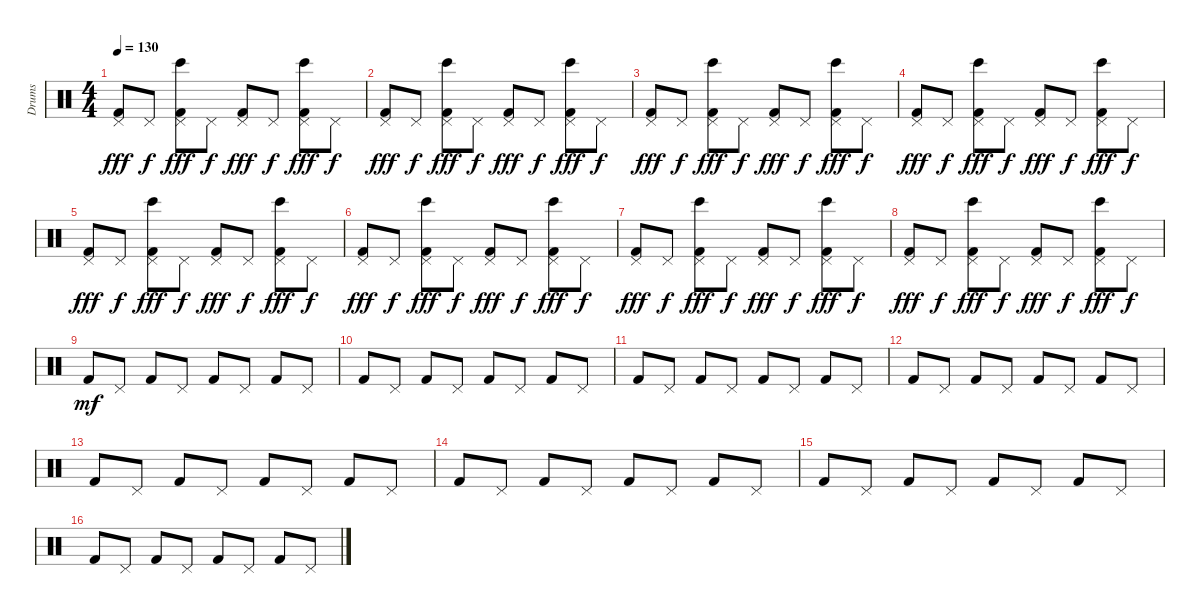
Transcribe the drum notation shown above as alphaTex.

\track ("Drums" "Drums") {instrument percussion}
\staff {score}
\articulation defaults
\ts (4 4)
\tempo 130
\clef neutral
\ks c
("Pedal Hi-Hat (hit)" "Kick (hit) 2").8{dy fff} "Pedal Hi-Hat (hit)".8{dy f} ("Pedal Hi-Hat (hit)" "Bongo High (hit)" "Kick (hit) 2").8{dy fff} "Pedal Hi-Hat (hit)".8{dy f} ("Pedal Hi-Hat (hit)" "Kick (hit) 2").8{dy fff} "Pedal Hi-Hat (hit)".8{dy f} ("Pedal Hi-Hat (hit)" "Bongo High (hit)" "Kick (hit) 2").8{dy fff} "Pedal Hi-Hat (hit)".8{dy f} |
("Pedal Hi-Hat (hit)" "Kick (hit) 2").8{dy fff} "Pedal Hi-Hat (hit)".8{dy f} ("Pedal Hi-Hat (hit)" "Bongo High (hit)" "Kick (hit) 2").8{dy fff} "Pedal Hi-Hat (hit)".8{dy f} ("Pedal Hi-Hat (hit)" "Kick (hit) 2").8{dy fff} "Pedal Hi-Hat (hit)".8{dy f} ("Pedal Hi-Hat (hit)" "Bongo High (hit)" "Kick (hit) 2").8{dy fff} "Pedal Hi-Hat (hit)".8{dy f} |
("Pedal Hi-Hat (hit)" "Kick (hit) 2").8{dy fff} "Pedal Hi-Hat (hit)".8{dy f} ("Pedal Hi-Hat (hit)" "Bongo High (hit)" "Kick (hit) 2").8{dy fff} "Pedal Hi-Hat (hit)".8{dy f} ("Pedal Hi-Hat (hit)" "Kick (hit) 2").8{dy fff} "Pedal Hi-Hat (hit)".8{dy f} ("Pedal Hi-Hat (hit)" "Bongo High (hit)" "Kick (hit) 2").8{dy fff} "Pedal Hi-Hat (hit)".8{dy f} |
("Pedal Hi-Hat (hit)" "Kick (hit) 2").8{dy fff} "Pedal Hi-Hat (hit)".8{dy f} ("Pedal Hi-Hat (hit)" "Bongo High (hit)" "Kick (hit) 2").8{dy fff} "Pedal Hi-Hat (hit)".8{dy f} ("Pedal Hi-Hat (hit)" "Kick (hit) 2").8{dy fff} "Pedal Hi-Hat (hit)".8{dy f} ("Pedal Hi-Hat (hit)" "Bongo High (hit)" "Kick (hit) 2").8{dy fff} "Pedal Hi-Hat (hit)".8{dy f} |
("Pedal Hi-Hat (hit)" "Kick (hit) 2").8{dy fff} "Pedal Hi-Hat (hit)".8{dy f} ("Pedal Hi-Hat (hit)" "Bongo High (hit)" "Kick (hit) 2").8{dy fff} "Pedal Hi-Hat (hit)".8{dy f} ("Pedal Hi-Hat (hit)" "Kick (hit) 2").8{dy fff} "Pedal Hi-Hat (hit)".8{dy f} ("Pedal Hi-Hat (hit)" "Bongo High (hit)" "Kick (hit) 2").8{dy fff} "Pedal Hi-Hat (hit)".8{dy f} |
("Pedal Hi-Hat (hit)" "Kick (hit) 2").8{dy fff} "Pedal Hi-Hat (hit)".8{dy f} ("Pedal Hi-Hat (hit)" "Bongo High (hit)" "Kick (hit) 2").8{dy fff} "Pedal Hi-Hat (hit)".8{dy f} ("Pedal Hi-Hat (hit)" "Kick (hit) 2").8{dy fff} "Pedal Hi-Hat (hit)".8{dy f} ("Pedal Hi-Hat (hit)" "Bongo High (hit)" "Kick (hit) 2").8{dy fff} "Pedal Hi-Hat (hit)".8{dy f} |
("Pedal Hi-Hat (hit)" "Kick (hit) 2").8{dy fff} "Pedal Hi-Hat (hit)".8{dy f} ("Pedal Hi-Hat (hit)" "Bongo High (hit)" "Kick (hit) 2").8{dy fff} "Pedal Hi-Hat (hit)".8{dy f} ("Pedal Hi-Hat (hit)" "Kick (hit) 2").8{dy fff} "Pedal Hi-Hat (hit)".8{dy f} ("Pedal Hi-Hat (hit)" "Bongo High (hit)" "Kick (hit) 2").8{dy fff} "Pedal Hi-Hat (hit)".8{dy f} |
("Pedal Hi-Hat (hit)" "Kick (hit) 2").8{dy fff} "Pedal Hi-Hat (hit)".8{dy f} ("Pedal Hi-Hat (hit)" "Bongo High (hit)" "Kick (hit) 2").8{dy fff} "Pedal Hi-Hat (hit)".8{dy f} ("Pedal Hi-Hat (hit)" "Kick (hit) 2").8{dy fff} "Pedal Hi-Hat (hit)".8{dy f} ("Pedal Hi-Hat (hit)" "Bongo High (hit)" "Kick (hit) 2").8{dy fff} "Pedal Hi-Hat (hit)".8{dy f} |
"Kick (hit) 2".8{dy mf} "Pedal Hi-Hat (hit)".8 "Kick (hit) 2".8 "Pedal Hi-Hat (hit)".8 "Kick (hit) 2".8 "Pedal Hi-Hat (hit)".8 "Kick (hit) 2".8 "Pedal Hi-Hat (hit)".8 |
"Kick (hit) 2".8 "Pedal Hi-Hat (hit)".8 "Kick (hit) 2".8 "Pedal Hi-Hat (hit)".8 "Kick (hit) 2".8 "Pedal Hi-Hat (hit)".8 "Kick (hit) 2".8 "Pedal Hi-Hat (hit)".8 |
"Kick (hit) 2".8 "Pedal Hi-Hat (hit)".8 "Kick (hit) 2".8 "Pedal Hi-Hat (hit)".8 "Kick (hit) 2".8 "Pedal Hi-Hat (hit)".8 "Kick (hit) 2".8 "Pedal Hi-Hat (hit)".8 |
"Kick (hit) 2".8 "Pedal Hi-Hat (hit)".8 "Kick (hit) 2".8 "Pedal Hi-Hat (hit)".8 "Kick (hit) 2".8 "Pedal Hi-Hat (hit)".8 "Kick (hit) 2".8 "Pedal Hi-Hat (hit)".8 |
"Kick (hit) 2".8 "Pedal Hi-Hat (hit)".8 "Kick (hit) 2".8 "Pedal Hi-Hat (hit)".8 "Kick (hit) 2".8 "Pedal Hi-Hat (hit)".8 "Kick (hit) 2".8 "Pedal Hi-Hat (hit)".8 |
"Kick (hit) 2".8 "Pedal Hi-Hat (hit)".8 "Kick (hit) 2".8 "Pedal Hi-Hat (hit)".8 "Kick (hit) 2".8 "Pedal Hi-Hat (hit)".8 "Kick (hit) 2".8 "Pedal Hi-Hat (hit)".8 |
"Kick (hit) 2".8 "Pedal Hi-Hat (hit)".8 "Kick (hit) 2".8 "Pedal Hi-Hat (hit)".8 "Kick (hit) 2".8 "Pedal Hi-Hat (hit)".8 "Kick (hit) 2".8 "Pedal Hi-Hat (hit)".8 |
"Kick (hit) 2".8 "Pedal Hi-Hat (hit)".8 "Kick (hit) 2".8 "Pedal Hi-Hat (hit)".8 "Kick (hit) 2".8 "Pedal Hi-Hat (hit)".8 "Kick (hit) 2".8 "Pedal Hi-Hat (hit)".8
